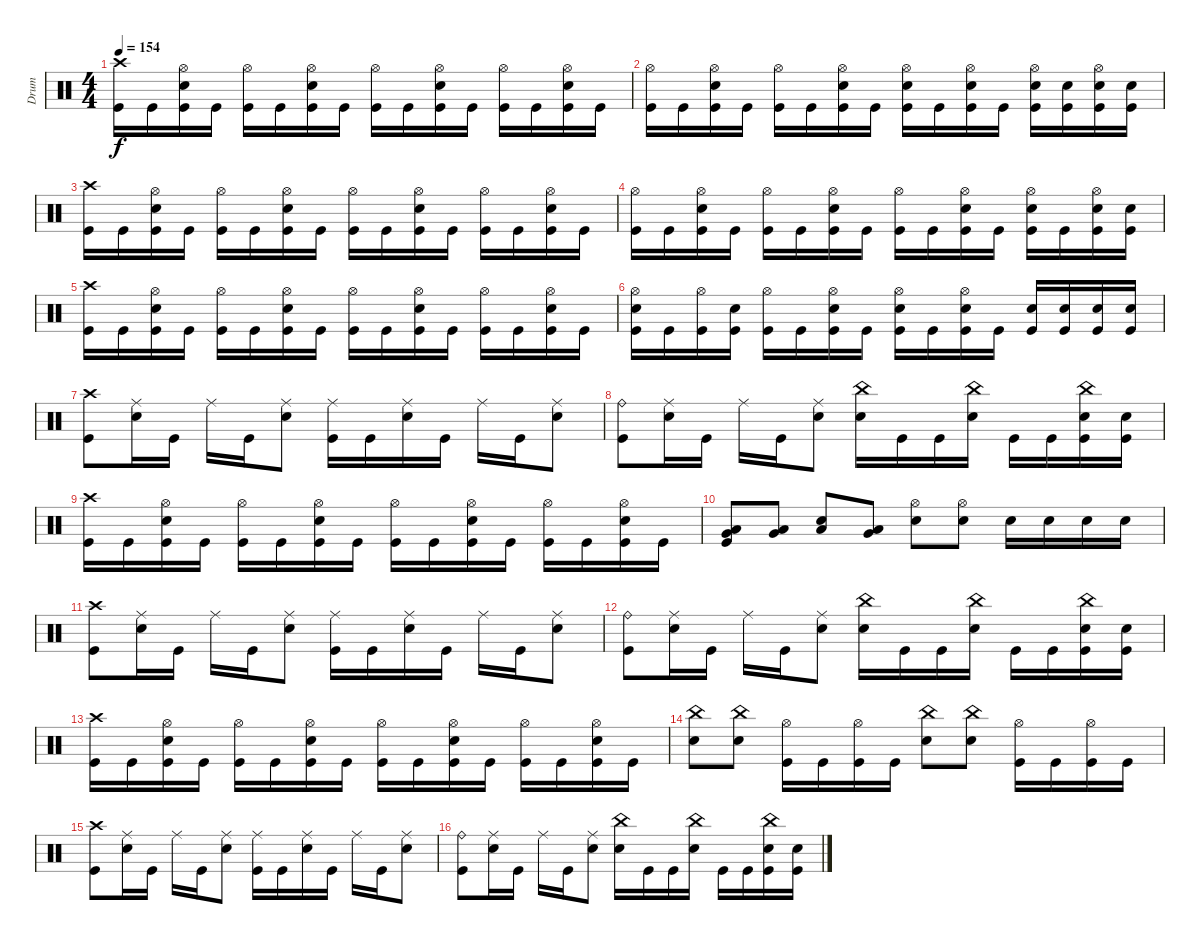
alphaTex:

\track ("Drum" "Drum") {instrument percussion}
\staff {score}
\articulation defaults
\ts (4 4)
\tempo 154
\clef neutral
\ks c
("Kick (hit)" "Crash high (hit)").16{dy f} "Kick (hit)".16 ("Kick (hit)" "Electric Snare (hit)" "Hi-Hat (open)").16 "Kick (hit)".16 ("Kick (hit)" "Hi-Hat (open)").16 "Kick (hit)".16 ("Kick (hit)" "Electric Snare (hit)" "Hi-Hat (open)").16 "Kick (hit)".16 ("Kick (hit)" "Hi-Hat (open)").16 "Kick (hit)".16 ("Kick (hit)" "Electric Snare (hit)" "Hi-Hat (open)").16 "Kick (hit)".16 ("Kick (hit)" "Hi-Hat (open)").16 "Kick (hit)".16 ("Kick (hit)" "Electric Snare (hit)" "Hi-Hat (open)").16 "Kick (hit)".16 |
("Kick (hit)" "Hi-Hat (open)").16 "Kick (hit)".16 ("Kick (hit)" "Electric Snare (hit)" "Hi-Hat (open)").16 "Kick (hit)".16 ("Kick (hit)" "Hi-Hat (open)").16 "Kick (hit)".16 ("Kick (hit)" "Electric Snare (hit)" "Hi-Hat (open)").16 "Kick (hit)".16 ("Kick (hit)" "Electric Snare (hit)" "Hi-Hat (open)").16 "Kick (hit)".16 ("Kick (hit)" "Electric Snare (hit)" "Hi-Hat (open)").16 "Kick (hit)".16 ("Kick (hit)" "Electric Snare (hit)" "Hi-Hat (open)").16 ("Kick (hit)" "Electric Snare (hit)").16 ("Kick (hit)" "Electric Snare (hit)" "Hi-Hat (open)").16 ("Kick (hit)" "Electric Snare (hit)").16 |
("Kick (hit)" "Crash high (hit)").16 "Kick (hit)".16 ("Kick (hit)" "Electric Snare (hit)" "Hi-Hat (open)").16 "Kick (hit)".16 ("Kick (hit)" "Hi-Hat (open)").16 "Kick (hit)".16 ("Kick (hit)" "Electric Snare (hit)" "Hi-Hat (open)").16 "Kick (hit)".16 ("Kick (hit)" "Hi-Hat (open)").16 "Kick (hit)".16 ("Kick (hit)" "Electric Snare (hit)" "Hi-Hat (open)").16 "Kick (hit)".16 ("Kick (hit)" "Hi-Hat (open)").16 "Kick (hit)".16 ("Kick (hit)" "Electric Snare (hit)" "Hi-Hat (open)").16 "Kick (hit)".16 |
("Kick (hit)" "Hi-Hat (open)").16 "Kick (hit)".16 ("Kick (hit)" "Electric Snare (hit)" "Hi-Hat (open)").16 "Kick (hit)".16 ("Kick (hit)" "Hi-Hat (open)").16 "Kick (hit)".16 ("Kick (hit)" "Electric Snare (hit)" "Hi-Hat (open)").16 "Kick (hit)".16 ("Kick (hit)" "Hi-Hat (open)").16 "Kick (hit)".16 ("Kick (hit)" "Electric Snare (hit)" "Hi-Hat (open)").16 "Kick (hit)".16 ("Kick (hit)" "Electric Snare (hit)" "Hi-Hat (open)").16 "Kick (hit)".16 ("Kick (hit)" "Electric Snare (hit)" "Hi-Hat (open)").16 ("Kick (hit)" "Electric Snare (hit)").16 |
("Kick (hit)" "Crash high (hit)").16 "Kick (hit)".16 ("Kick (hit)" "Electric Snare (hit)" "Hi-Hat (open)").16 "Kick (hit)".16 ("Kick (hit)" "Hi-Hat (open)").16 "Kick (hit)".16 ("Kick (hit)" "Electric Snare (hit)" "Hi-Hat (open)").16 "Kick (hit)".16 ("Kick (hit)" "Hi-Hat (open)").16 "Kick (hit)".16 ("Kick (hit)" "Electric Snare (hit)" "Hi-Hat (open)").16 "Kick (hit)".16 ("Kick (hit)" "Hi-Hat (open)").16 "Kick (hit)".16 ("Kick (hit)" "Electric Snare (hit)" "Hi-Hat (open)").16 "Kick (hit)".16 |
("Kick (hit)" "Electric Snare (hit)" "Hi-Hat (open)").16 "Kick (hit)".16 ("Kick (hit)" "Hi-Hat (open)").16 ("Kick (hit)" "Electric Snare (hit)").16 ("Kick (hit)" "Hi-Hat (open)").16 "Kick (hit)".16 ("Kick (hit)" "Electric Snare (hit)" "Hi-Hat (open)").16 "Kick (hit)".16 ("Kick (hit)" "Electric Snare (hit)" "Hi-Hat (open)").16 "Kick (hit)".16 ("Kick (hit)" "Electric Snare (hit)" "Hi-Hat (open)").16 "Kick (hit)".16 ("Kick (hit)" "Electric Snare (hit)").16 ("Kick (hit)" "Electric Snare (hit)").16 ("Kick (hit)" "Electric Snare (hit)").16 ("Kick (hit)" "Electric Snare (hit)").16 |
("Kick (hit)" "Crash high (hit)").8 ("Electric Snare (hit)" "Ride (middle)").16 "Kick (hit)".16 "Ride (middle)".16 "Kick (hit)".16 ("Electric Snare (hit)" "Ride (middle)").8 ("Kick (hit)" "Ride (middle)").16 "Kick (hit)".16 ("Electric Snare (hit)" "Ride (middle)").16 "Kick (hit)".16 "Ride (middle)".16 "Kick (hit)".16 ("Electric Snare (hit)" "Ride (middle)").8 |
("Kick (hit)" "Ride (bell)").8 ("Electric Snare (hit)" "Ride (middle)").16 "Kick (hit)".16 "Ride (middle)".16 "Kick (hit)".16 ("Electric Snare (hit)" "Ride (middle)").8 ("Electric Snare (hit)" "China (hit)").16 "Kick (hit)".16 "Kick (hit)".16 ("Electric Snare (hit)" "China (hit)").16 "Kick (hit)".16 "Kick (hit)".16 ("Kick (hit)" "Electric Snare (hit)" "China (hit)").16 ("Kick (hit)" "Electric Snare (hit)").16 |
("Kick (hit)" "Crash high (hit)").16 "Kick (hit)".16 ("Kick (hit)" "Electric Snare (hit)" "Hi-Hat (open)").16 "Kick (hit)".16 ("Kick (hit)" "Hi-Hat (open)").16 "Kick (hit)".16 ("Kick (hit)" "Electric Snare (hit)" "Hi-Hat (open)").16 "Kick (hit)".16 ("Kick (hit)" "Hi-Hat (open)").16 "Kick (hit)".16 ("Kick (hit)" "Electric Snare (hit)" "Hi-Hat (open)").16 "Kick (hit)".16 ("Kick (hit)" "Hi-Hat (open)").16 "Kick (hit)".16 ("Kick (hit)" "Electric Snare (hit)" "Hi-Hat (open)").16 "Kick (hit)".16 |
("Kick (hit)" "Very Low Tom (hit)" "Low Tom (hit)").8 ("Very Low Tom (hit)" "Low Tom (hit)").8 ("Electric Snare (hit)" "Low Floor Tom (hit)").8 ("Very Low Tom (hit)" "Low Tom (hit)").8 ("Electric Snare (hit)" "Hi-Hat (open)").8 ("Electric Snare (hit)" "Hi-Hat (open)").8 "Electric Snare (hit)".16 "Electric Snare (hit)".16 "Electric Snare (hit)".16 "Electric Snare (hit)".16 |
("Kick (hit)" "Crash high (hit)").8 ("Electric Snare (hit)" "Ride (middle)").16 "Kick (hit)".16 "Ride (middle)".16 "Kick (hit)".16 ("Electric Snare (hit)" "Ride (middle)").8 ("Kick (hit)" "Ride (middle)").16 "Kick (hit)".16 ("Electric Snare (hit)" "Ride (middle)").16 "Kick (hit)".16 "Ride (middle)".16 "Kick (hit)".16 ("Electric Snare (hit)" "Ride (middle)").8 |
("Kick (hit)" "Ride (bell)").8 ("Electric Snare (hit)" "Ride (middle)").16 "Kick (hit)".16 "Ride (middle)".16 "Kick (hit)".16 ("Electric Snare (hit)" "Ride (middle)").8 ("Electric Snare (hit)" "China (hit)").16 "Kick (hit)".16 "Kick (hit)".16 ("Electric Snare (hit)" "China (hit)").16 "Kick (hit)".16 "Kick (hit)".16 ("Kick (hit)" "Electric Snare (hit)" "China (hit)").16 ("Kick (hit)" "Electric Snare (hit)").16 |
("Kick (hit)" "Crash high (hit)").16 "Kick (hit)".16 ("Kick (hit)" "Electric Snare (hit)" "Hi-Hat (open)").16 "Kick (hit)".16 ("Kick (hit)" "Hi-Hat (open)").16 "Kick (hit)".16 ("Kick (hit)" "Electric Snare (hit)" "Hi-Hat (open)").16 "Kick (hit)".16 ("Kick (hit)" "Hi-Hat (open)").16 "Kick (hit)".16 ("Kick (hit)" "Electric Snare (hit)" "Hi-Hat (open)").16 "Kick (hit)".16 ("Kick (hit)" "Hi-Hat (open)").16 "Kick (hit)".16 ("Kick (hit)" "Electric Snare (hit)" "Hi-Hat (open)").16 "Kick (hit)".16 |
("Electric Snare (hit)" "China (hit)").8 ("Electric Snare (hit)" "China (hit)").8 ("Kick (hit)" "Hi-Hat (open)").16 "Kick (hit)".16 ("Kick (hit)" "Hi-Hat (open)").16 "Kick (hit)".16 ("Electric Snare (hit)" "China (hit)").8 ("Electric Snare (hit)" "China (hit)").8 ("Kick (hit)" "Hi-Hat (open)").16 "Kick (hit)".16 ("Kick (hit)" "Hi-Hat (open)").16 "Kick (hit)".16 |
("Kick (hit)" "Crash high (hit)").8 ("Electric Snare (hit)" "Ride (middle)").16 "Kick (hit)".16 "Ride (middle)".16 "Kick (hit)".16 ("Electric Snare (hit)" "Ride (middle)").8 ("Kick (hit)" "Ride (middle)").16 "Kick (hit)".16 ("Electric Snare (hit)" "Ride (middle)").16 "Kick (hit)".16 "Ride (middle)".16 "Kick (hit)".16 ("Electric Snare (hit)" "Ride (middle)").8 |
("Kick (hit)" "Ride (bell)").8 ("Electric Snare (hit)" "Ride (middle)").16 "Kick (hit)".16 "Ride (middle)".16 "Kick (hit)".16 ("Electric Snare (hit)" "Ride (middle)").8 ("Electric Snare (hit)" "China (hit)").16 "Kick (hit)".16 "Kick (hit)".16 ("Electric Snare (hit)" "China (hit)").16 "Kick (hit)".16 "Kick (hit)".16 ("Kick (hit)" "Electric Snare (hit)" "China (hit)").16 ("Kick (hit)" "Electric Snare (hit)").16
